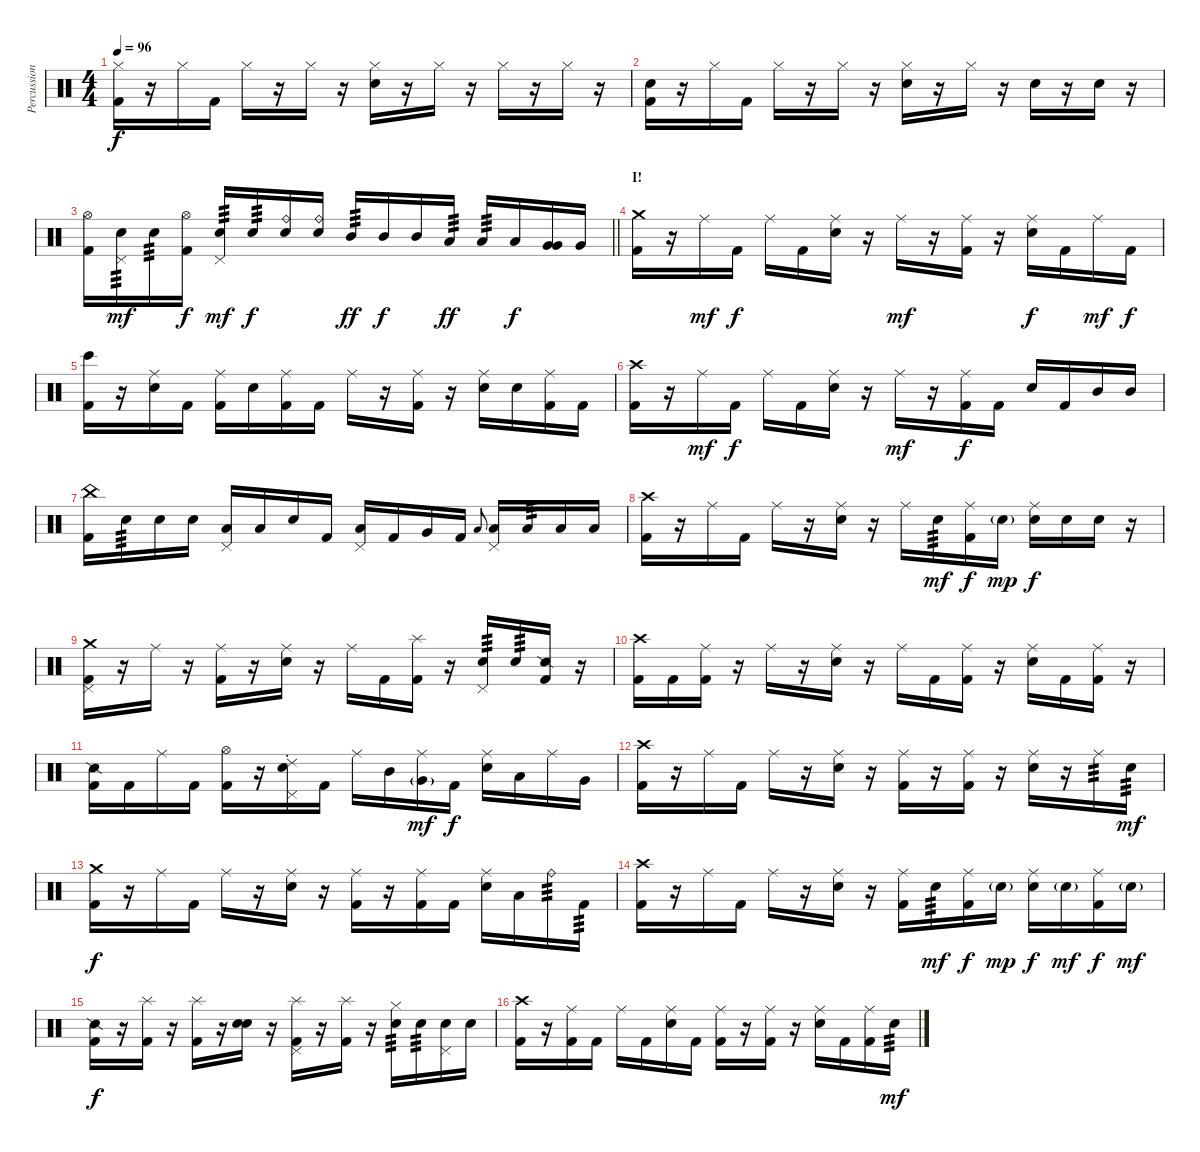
\track ("Percussion" "Percussion") {instrument percussion}
\staff {score}
\articulation defaults
\ts (4 4)
\tempo 96
\clef neutral
\ks c
("Hi-Hat (closed)" "Kick (hit) 2").16{dy f} r.16 "Hi-Hat (closed)".16 "Kick (hit) 2".16 "Hi-Hat (closed)".16 r.16 "Hi-Hat (closed)".16 r.16 ("Hi-Hat (closed)" "Snare (hit) 2").16 r.16 "Hi-Hat (closed)".16 r.16 "Hi-Hat (closed)".16 r.16 "Hi-Hat (closed)".16 r.16 |
("Snare (hit)" "Kick (hit) 2").16 r.16 "Hi-Hat (closed)".16 "Kick (hit) 2".16 "Hi-Hat (closed)".16 r.16 "Hi-Hat (closed)".16 r.16 ("Hi-Hat (closed)" "Snare (hit) 2").16 r.16 "Hi-Hat (closed)".16 r.16 "Snare (hit)".16 r.16 "Snare (hit)".16 r.16 |
\barLineRight lightlight
("Hi-Hat (open)" "Kick (hit) 2").16 ("Pedal Hi-Hat (hit)" "Snare (hit) 2").16{tp 3 dy mf} "Snare (hit) 2".16{tp 3} ("Hi-Hat (open)" "Kick (hit) 2").16{dy f} ("Pedal Hi-Hat (hit)" "Snare (hit) 2").16{tp 3 dy mf} "Snare (hit) 2".16{tp 3 dy f} ("Ride (bell)" "Snare (hit) 2").16 ("Ride (bell)" "Snare (hit) 2").16 "Mid Tom (hit)".16{tp 3 dy ff} "Mid Tom (hit)".16{dy f} "Mid Tom (hit)".16 "Low Tom (hit)".16{tp 3 dy ff} "Low Tom (hit)".16{tp 3} "Low Tom (hit)".16{dy f} ("Very Low Tom (hit)" "Very Low Tom (hit)").16{bu 60} "Very Low Tom (hit)".16 |
\section ("" "I!")
("Crash medium (hit)" "Kick (hit) 2").16 r.16 "Ride (middle)".16{dy mf} "Kick (hit) 2".16{dy f} "Ride (middle)".16 "Kick (hit) 2".16 ("Ride (middle)" "Snare (hit) 2").16 r.16 "Ride (middle)".16{dy mf} r.16 ("Ride (middle)" "Kick (hit) 2").16 r.16 ("Ride (middle)" "Snare (hit) 2").16{dy f} "Kick (hit) 2".16 "Ride (middle)".16{dy mf} "Kick (hit) 2".16{dy f} |
("Bongo High (hit)" "Kick (hit) 2").16 r.16 ("Ride (middle)" "Snare (hit) 2").16 "Kick (hit) 2".16 ("Ride (middle)" "Kick (hit) 2").16 "Snare (hit) 2".16 ("Ride (middle)" "Kick (hit) 2").16 "Kick (hit) 2".16 "Ride (middle)".16 r.16 ("Ride (middle)" "Kick (hit) 2").16 r.16 ("Ride (middle)" "Snare (hit) 2").16 "Snare (hit) 2".16 ("Ride (middle)" "Kick (hit) 2").16 "Kick (hit) 2".16 |
("Crash high (hit)" "Kick (hit) 2").16 r.16 "Ride (middle)".16{dy mf} "Kick (hit) 2".16{dy f} "Ride (middle)".16 "Kick (hit) 2".16 ("Ride (middle)" "Snare (hit) 2").16 r.16 "Ride (middle)".16{dy mf} r.16 ("Ride (middle)" "Kick (hit) 2").16{dy f} "Kick (hit) 2".16 "Snare (hit) 2".16 "Kick (hit) 2".16 "Mid Tom (hit)".16 "Mid Tom (hit)".16 |
("China (hit)" "Kick (hit) 2").16 "Snare (hit) 2".16{tp 3} "Snare (hit) 2".16 "Snare (hit) 2".16 ("Pedal Hi-Hat (hit)" "Low Tom (hit)").16 "Low Tom (hit)".16 "Snare (hit) 2".16 "Kick (hit) 2".16 ("Pedal Hi-Hat (hit)" "Low Tom (hit)").16 "Kick (hit) 2".16 "Very Low Tom (hit)".16 "Kick (hit) 2".16 "Low Floor Tom (hit)".8{gr onbeat} ("Pedal Hi-Hat (hit)" "Low Floor Tom (hit)").16 "Low Floor Tom (hit)".16{tp 3} "Low Floor Tom (hit)".16 "Low Floor Tom (hit)".16 |
("Crash high (hit)" "Kick (hit) 2").16 r.16 "Ride (middle)".16 "Kick (hit) 2".16 "Ride (middle)".16 r.16 ("Ride (middle)" "Snare (hit) 2").16 r.16 "Ride (middle)".16 "Snare (hit) 2".16{tp 3 dy mf} ("Ride (middle)" "Kick (hit) 2").16{dy f} "Snare (hit) 2"{g}.16{dy mp} ("Ride (middle)" "Snare (hit) 2").16{dy f} "Snare (hit) 2".16 "Snare (hit)".16 r.16 |
("Crash medium (hit)" "Pedal Hi-Hat (hit)" "Kick (hit) 2").16 r.16 "Ride (middle)".16 r.16 ("Ride (middle)" "Kick (hit) 2").16 r.16 ("Ride (middle)" "Snare (hit) 2").16 r.16 "Ride (middle)".16 "Kick (hit) 2".16 ("Splash (hit)" "Kick (hit) 2").16 r.16 ("Pedal Hi-Hat (hit)" "Snare (hit) 2").16{tp 3} "Snare (hit) 2".16{tp 3} ("Snare (side stick) 2" "Kick (hit) 2").16 r.16 |
("Crash high (hit)" "Kick (hit) 2").16 "Kick (hit) 2".16 ("Ride (middle)" "Kick (hit) 2").16 r.16 "Ride (middle)".16 r.16 ("Ride (middle)" "Snare (hit) 2").16 r.16 "Ride (middle)".16 "Kick (hit) 2".16 ("Ride (middle)" "Kick (hit) 2").16 r.16 ("Ride (middle)" "Snare (hit) 2").16 "Kick (hit) 2".16 ("Ride (middle)" "Kick (hit) 2").16 r.16 |
("Snare (side stick) 2" "Kick (hit) 2").16 "Kick (hit) 2".16 "Ride (middle)".16 "Kick (hit) 2".16 ("Hi-Hat (open)" "Kick (hit) 2").16 r.16 ("Ride (choke) 2" "Pedal Hi-Hat (hit)" "Snare (hit) 2").16 "Kick (hit) 2".16 "Ride (middle)".16 "Mid Tom (hit)".16 ("Ride (middle)" "Very Low Tom (hit)"{g}).16{dy mf} "Kick (hit) 2".16{dy f} ("Ride (middle)" "Snare (hit) 2").16 "Low Tom (hit)".16 "Ride (middle)".16 "Very Low Tom (hit)".16 |
("Crash high (hit)" "Kick (hit) 2").16 r.16 "Ride (middle)".16 "Kick (hit) 2".16 "Ride (middle)".16 r.16 ("Ride (middle)" "Snare (hit) 2").16 r.16 ("Ride (middle)" "Kick (hit) 2").16 r.16 ("Ride (middle)" "Kick (hit) 2").16 r.16 ("Ride (middle)" "Snare (hit) 2").16 r.16 "Ride (middle)".16{tp 3} "Snare (hit) 2".16{tp 3 dy mf} |
("Crash medium (hit)" "Kick (hit) 2").16{dy f} r.16 "Ride (middle)".16 "Kick (hit) 2".16 "Ride (middle)".16 r.16 ("Ride (middle)" "Snare (hit) 2").16 r.16 ("Ride (middle)" "Kick (hit) 2").16 r.16 ("Ride (middle)" "Kick (hit) 2").16 "Kick (hit) 2".16 ("Ride (middle)" "Snare (hit) 2").16 "Low Tom (hit)".16 "Ride (bell)".16{tp 3} "Kick (hit) 2".16{tp 3} |
("Crash high (hit)" "Kick (hit) 2").16 r.16 "Ride (middle)".16 "Kick (hit) 2".16 "Ride (middle)".16 r.16 ("Ride (middle)" "Snare (hit) 2").16 r.16 ("Ride (middle)" "Kick (hit) 2").16 "Snare (hit) 2".16{tp 3 dy mf} ("Ride (middle)" "Kick (hit) 2").16{dy f} "Snare (hit) 2"{g}.16{dy mp} ("Ride (middle)" "Snare (hit) 2").16{dy f} "Snare (hit) 2"{g}.16{dy mf} ("Ride (middle)" "Kick (hit) 2").16{dy f} "Snare (hit) 2"{g}.16{dy mf} |
("Snare (side stick) 2" "Kick (hit) 2").16{dy f} r.16 ("Splash (hit)" "Kick (hit) 2").16 r.16 ("Splash (hit)" "Kick (hit) 2").16 r.16 ("Snare (hit)" "Snare (hit) 2").16 r.16 ("Splash (hit)" "Pedal Hi-Hat (hit)" "Kick (hit) 2").16 r.16 ("Splash (hit)" "Kick (hit) 2").16 r.16 ("Hi-Hat (closed)" "Snare (hit) 2").16{tp 3} "Snare (hit) 2".16{tp 3} ("Pedal Hi-Hat (hit)" "Snare (hit) 2").16 "Snare (hit) 2".16 |
("Crash high (hit)" "Kick (hit) 2").16 r.16 ("Ride (middle)" "Kick (hit) 2").16 "Kick (hit) 2".16 "Ride (middle)".16 "Kick (hit) 2".16 ("Ride (middle)" "Snare (hit) 2").16 "Kick (hit) 2".16 ("Ride (middle)" "Kick (hit) 2").16 r.16 ("Ride (middle)" "Kick (hit) 2").16 r.16 ("Ride (middle)" "Snare (hit) 2").16 "Kick (hit) 2".16 ("Ride (middle)" "Kick (hit) 2").16 "Snare (hit) 2".16{tp 3 dy mf}
